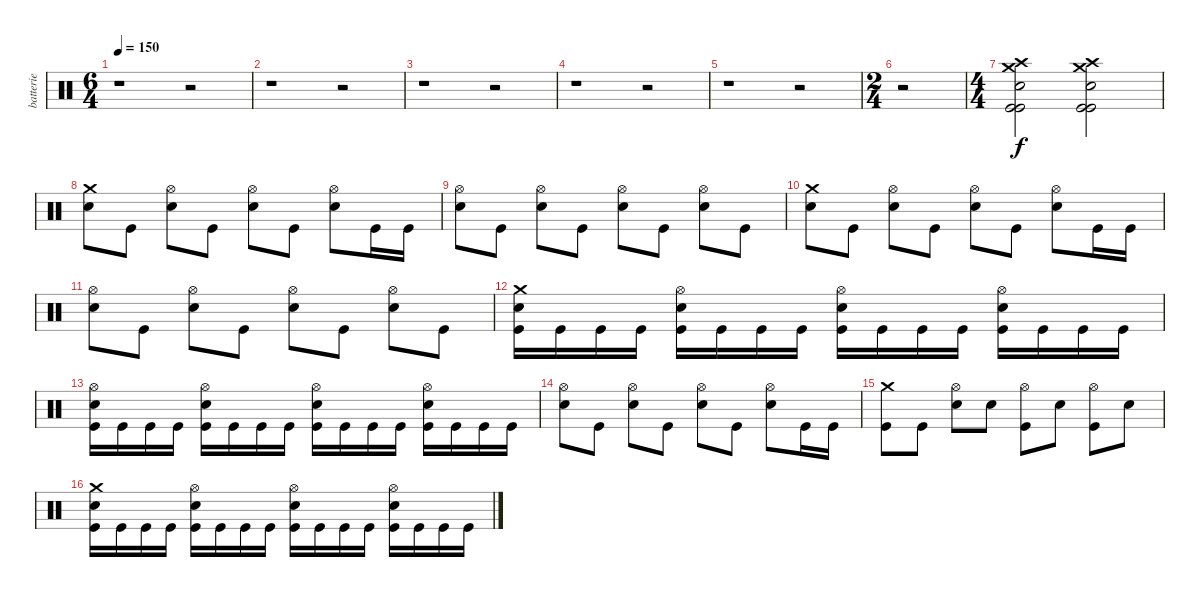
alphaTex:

\track ("batterie" "batterie") {instrument percussion}
\staff {score}
\articulation defaults
\ts (6 4)
\tempo 150
\clef neutral
\ks c
r.1{dy f} r.2 |
r.1 r.2 |
r.1 r.2 |
r.1 r.2 |
r.1 r.2 |
\ts (2 4)
r.2 |
\ts (4 4)
("Crash high (hit)" "Crash medium (hit)" "Kick (hit)" "Snare (hit) 2" "Kick (hit)").2 ("Crash high (hit)" "Crash medium (hit)" "Kick (hit)" "Snare (hit) 2" "Kick (hit)").2 |
("Crash medium (hit)" "Snare (hit) 2").8 "Kick (hit)".8 ("Hi-Hat (open)" "Snare (hit) 2").8 "Kick (hit)".8 ("Hi-Hat (open)" "Snare (hit) 2").8 "Kick (hit)".8 ("Hi-Hat (open)" "Snare (hit) 2").8 "Kick (hit)".16 "Kick (hit)".16 |
("Hi-Hat (open)" "Snare (hit) 2").8 "Kick (hit)".8 ("Hi-Hat (open)" "Snare (hit) 2").8 "Kick (hit)".8 ("Hi-Hat (open)" "Snare (hit) 2").8 "Kick (hit)".8 ("Hi-Hat (open)" "Snare (hit) 2").8 "Kick (hit)".8 |
("Crash medium (hit)" "Snare (hit) 2").8 "Kick (hit)".8 ("Hi-Hat (open)" "Snare (hit) 2").8 "Kick (hit)".8 ("Hi-Hat (open)" "Snare (hit) 2").8 "Kick (hit)".8 ("Hi-Hat (open)" "Snare (hit) 2").8 "Kick (hit)".16 "Kick (hit)".16 |
("Hi-Hat (open)" "Snare (hit) 2").8 "Kick (hit)".8 ("Hi-Hat (open)" "Snare (hit) 2").8 "Kick (hit)".8 ("Hi-Hat (open)" "Snare (hit) 2").8 "Kick (hit)".8 ("Hi-Hat (open)" "Snare (hit) 2").8 "Kick (hit)".8 |
("Crash medium (hit)" "Snare (hit) 2" "Kick (hit)").16 "Kick (hit)".16 "Kick (hit)".16 "Kick (hit)".16 ("Hi-Hat (open)" "Snare (hit) 2" "Kick (hit)").16 "Kick (hit)".16 "Kick (hit)".16 "Kick (hit)".16 ("Hi-Hat (open)" "Snare (hit) 2" "Kick (hit)").16 "Kick (hit)".16 "Kick (hit)".16 "Kick (hit)".16 ("Hi-Hat (open)" "Snare (hit) 2" "Kick (hit)").16 "Kick (hit)".16 "Kick (hit)".16 "Kick (hit)".16 |
("Hi-Hat (open)" "Snare (hit) 2" "Kick (hit)").16 "Kick (hit)".16 "Kick (hit)".16 "Kick (hit)".16 ("Hi-Hat (open)" "Snare (hit) 2" "Kick (hit)").16 "Kick (hit)".16 "Kick (hit)".16 "Kick (hit)".16 ("Hi-Hat (open)" "Snare (hit) 2" "Kick (hit)").16 "Kick (hit)".16 "Kick (hit)".16 "Kick (hit)".16 ("Hi-Hat (open)" "Snare (hit) 2" "Kick (hit)").16 "Kick (hit)".16 "Kick (hit)".16 "Kick (hit)".16 |
("Hi-Hat (open)" "Snare (hit) 2").8 "Kick (hit)".8 ("Hi-Hat (open)" "Snare (hit) 2").8 "Kick (hit)".8 ("Hi-Hat (open)" "Snare (hit) 2").8 "Kick (hit)".8 ("Hi-Hat (open)" "Snare (hit) 2").8 "Kick (hit)".16 "Kick (hit)".16 |
("Crash medium (hit)" "Kick (hit)").8 "Kick (hit)".8 ("Hi-Hat (open)" "Snare (hit) 2").8 "Snare (hit) 2".8 ("Hi-Hat (open)" "Kick (hit)").8 "Snare (hit) 2".8 ("Hi-Hat (open)" "Kick (hit)").8 "Snare (hit) 2".8 |
("Crash medium (hit)" "Snare (hit) 2" "Kick (hit)").16 "Kick (hit)".16 "Kick (hit)".16 "Kick (hit)".16 ("Hi-Hat (open)" "Snare (hit) 2" "Kick (hit)").16 "Kick (hit)".16 "Kick (hit)".16 "Kick (hit)".16 ("Hi-Hat (open)" "Snare (hit) 2" "Kick (hit)").16 "Kick (hit)".16 "Kick (hit)".16 "Kick (hit)".16 ("Hi-Hat (open)" "Snare (hit) 2" "Kick (hit)").16 "Kick (hit)".16 "Kick (hit)".16 "Kick (hit)".16
